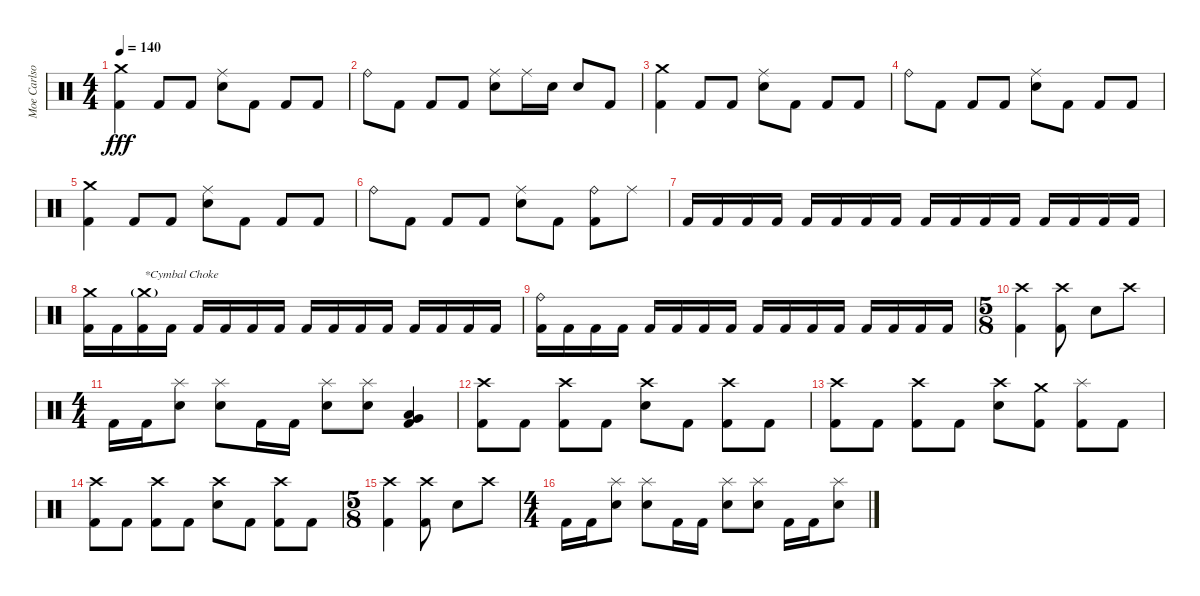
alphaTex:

\track ("Moe Carlson" "Moe Carlso") {instrument percussion}
\staff {score}
\articulation defaults
\ts (4 4)
\tempo 140
\clef neutral
\ks c
("Crash medium (hit)" "Kick (hit) 2").4{dy fff} "Kick (hit) 2".8 "Kick (hit) 2".8 ("Ride (middle)" "Electric Snare (hit)").8 "Kick (hit) 2".8 "Kick (hit) 2".8 "Kick (hit) 2".8 |
"Ride (bell)".8 "Kick (hit) 2".8 "Kick (hit) 2".8 "Kick (hit) 2".8 ("Ride (middle)" "Electric Snare (hit)").8 "Ride (middle)".16 "Electric Snare (hit)".16 "Electric Snare (hit)".8 "Kick (hit) 2".8 |
("Crash medium (hit)" "Kick (hit) 2").4 "Kick (hit) 2".8 "Kick (hit) 2".8 ("Ride (middle)" "Electric Snare (hit)").8 "Kick (hit) 2".8 "Kick (hit) 2".8 "Kick (hit) 2".8 |
"Ride (bell)".8 "Kick (hit) 2".8 "Kick (hit) 2".8 "Kick (hit) 2".8 ("Ride (middle)" "Electric Snare (hit)").8 "Kick (hit) 2".8 "Kick (hit) 2".8 "Kick (hit) 2".8 |
("Crash medium (hit)" "Kick (hit) 2").4 "Kick (hit) 2".8 "Kick (hit) 2".8 ("Ride (middle)" "Electric Snare (hit)").8 "Kick (hit) 2".8 "Kick (hit) 2".8 "Kick (hit) 2".8 |
"Ride (bell)".8 "Kick (hit) 2".8 "Kick (hit) 2".8 "Kick (hit) 2".8 ("Ride (middle)" "Electric Snare (hit)").8 "Kick (hit) 2".8 ("Ride (bell)" "Kick (hit) 2").8 "Ride (middle)".8 |
"Kick (hit) 2".16 "Kick (hit) 2".16 "Kick (hit) 2".16 "Kick (hit) 2".16 "Kick (hit) 2".16 "Kick (hit) 2".16 "Kick (hit) 2".16 "Kick (hit) 2".16 "Kick (hit) 2".16 "Kick (hit) 2".16 "Kick (hit) 2".16 "Kick (hit) 2".16 "Kick (hit) 2".16 "Kick (hit) 2".16 "Kick (hit) 2".16 "Kick (hit) 2".16 |
("Crash medium (hit)" "Kick (hit) 2").16 "Kick (hit) 2".16 ("Crash medium (hit)"{g} "Kick (hit) 2").16{txt "*Cymbal Choke"} "Kick (hit) 2".16 "Kick (hit) 2".16 "Kick (hit) 2".16 "Kick (hit) 2".16 "Kick (hit) 2".16 "Kick (hit) 2".16 "Kick (hit) 2".16 "Kick (hit) 2".16 "Kick (hit) 2".16 "Kick (hit) 2".16 "Kick (hit) 2".16 "Kick (hit) 2".16 "Kick (hit) 2".16 |
("Ride (bell)" "Kick (hit) 2").16 "Kick (hit) 2".16 "Kick (hit) 2".16 "Kick (hit) 2".16 "Kick (hit) 2".16 "Kick (hit) 2".16 "Kick (hit) 2".16 "Kick (hit) 2".16 "Kick (hit) 2".16 "Kick (hit) 2".16 "Kick (hit) 2".16 "Kick (hit) 2".16 "Kick (hit) 2".16 "Kick (hit) 2".16 "Kick (hit) 2".16 "Kick (hit) 2".16 |
\ts (5 8)
("Crash high (hit)" "Kick (hit) 2").4 ("Crash high (hit)" "Kick (hit) 2").8 "Electric Snare (hit)".8 "Crash high (hit)".8 |
\ts (4 4)
"Kick (hit) 2".16 "Kick (hit) 2".16 ("Splash (hit)" "Electric Snare (hit)").8 ("Splash (hit)" "Electric Snare (hit)").8 "Kick (hit) 2".16 "Kick (hit) 2".16 ("Splash (hit)" "Electric Snare (hit)").8 ("Splash (hit)" "Electric Snare (hit)").8 ("Very Low Tom (hit)" "Low Floor Tom (hit)" "Kick (hit) 2").4 |
("Crash high (hit)" "Kick (hit) 2").8 "Kick (hit) 2".8 ("Crash high (hit)" "Kick (hit) 2").8 "Kick (hit) 2".8 ("Crash high (hit)" "Electric Snare (hit)").8 "Kick (hit) 2".8 ("Crash high (hit)" "Kick (hit) 2").8 "Kick (hit) 2".8 |
("Crash high (hit)" "Kick (hit) 2").8 "Kick (hit) 2".8 ("Crash high (hit)" "Kick (hit) 2").8 "Kick (hit) 2".8 ("Crash high (hit)" "Electric Snare (hit)").8 ("Crash medium (hit)" "Kick (hit) 2").8 ("Splash (hit)" "Kick (hit) 2").8 "Kick (hit) 2".8 |
("Crash high (hit)" "Kick (hit) 2").8 "Kick (hit) 2".8 ("Crash high (hit)" "Kick (hit) 2").8 "Kick (hit) 2".8 ("Crash high (hit)" "Electric Snare (hit)").8 "Kick (hit) 2".8 ("Crash high (hit)" "Kick (hit) 2").8 "Kick (hit) 2".8 |
\ts (5 8)
("Crash high (hit)" "Kick (hit) 2").4 ("Crash high (hit)" "Kick (hit) 2").8 "Electric Snare (hit)".8 "Crash high (hit)".8 |
\ts (4 4)
"Kick (hit) 2".16 "Kick (hit) 2".16 ("Splash (hit)" "Electric Snare (hit)").8 ("Splash (hit)" "Electric Snare (hit)").8 "Kick (hit) 2".16 "Kick (hit) 2".16 ("Splash (hit)" "Electric Snare (hit)").8 ("Splash (hit)" "Electric Snare (hit)").8 "Kick (hit) 2".16 "Kick (hit) 2".16 ("Splash (hit)" "Electric Snare (hit)").8
